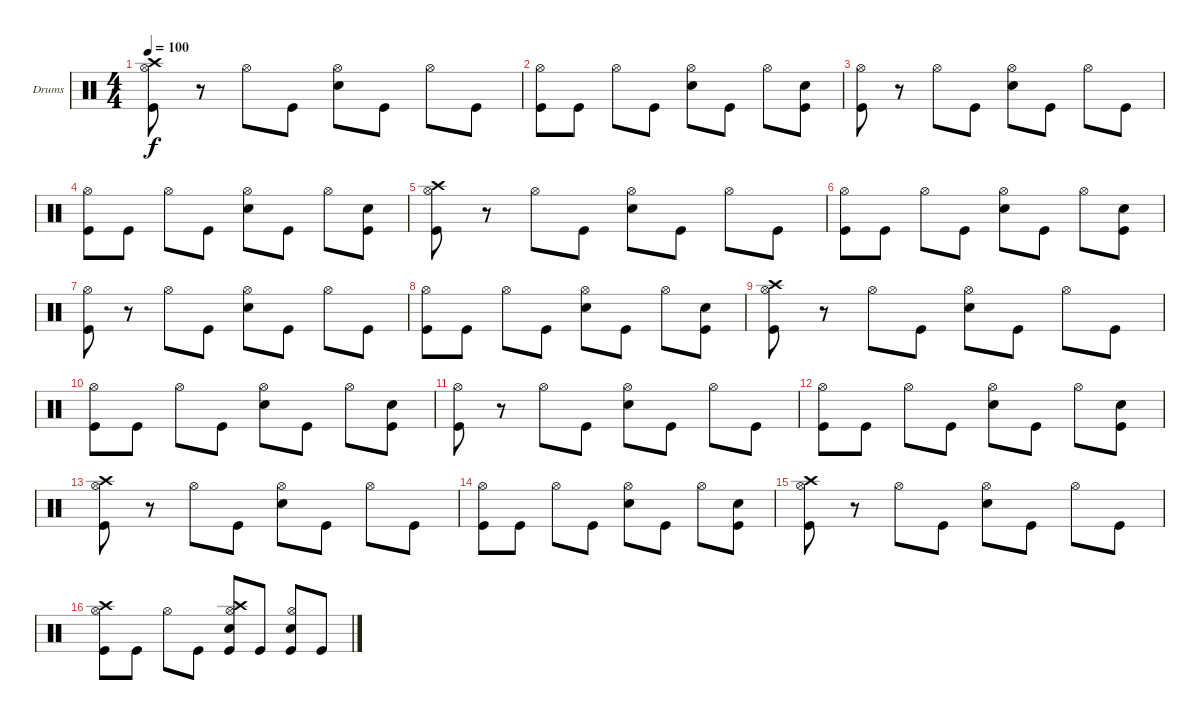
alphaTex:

\bracketExtendMode groupsimilarinstruments
\firstSystemTrackNameOrientation horizontal
\otherSystemsTrackNameOrientation horizontal
\track ("Kaleb - Drums" "Drums") {instrument percussion}
\staff {score}
\articulation defaults
\ts (4 4)
\tempo 100
\clef neutral
\ks c
("Kick (hit)" "Hi-Hat (open)" "Crash high (hit)").8{dy f} r.8 "Hi-Hat (open)".8 "Kick (hit)".8 ("Snare (hit) 2" "Hi-Hat (open)").8 "Kick (hit)".8 "Hi-Hat (open)".8 "Kick (hit)".8 |
("Kick (hit)" "Hi-Hat (open)").8 "Kick (hit)".8 "Hi-Hat (open)".8 "Kick (hit)".8 ("Snare (hit) 2" "Hi-Hat (open)").8 "Kick (hit)".8 "Hi-Hat (open)".8 ("Snare (hit) 2" "Kick (hit)").8 |
("Kick (hit)" "Hi-Hat (open)").8 r.8 "Hi-Hat (open)".8 "Kick (hit)".8 ("Snare (hit) 2" "Hi-Hat (open)").8 "Kick (hit)".8 "Hi-Hat (open)".8 "Kick (hit)".8 |
("Kick (hit)" "Hi-Hat (open)").8 "Kick (hit)".8 "Hi-Hat (open)".8 "Kick (hit)".8 ("Snare (hit) 2" "Hi-Hat (open)").8 "Kick (hit)".8 "Hi-Hat (open)".8 ("Snare (hit) 2" "Kick (hit)").8 |
("Kick (hit)" "Hi-Hat (open)" "Crash high (hit)").8 r.8 "Hi-Hat (open)".8 "Kick (hit)".8 ("Snare (hit) 2" "Hi-Hat (open)").8 "Kick (hit)".8 "Hi-Hat (open)".8 "Kick (hit)".8 |
("Kick (hit)" "Hi-Hat (open)").8 "Kick (hit)".8 "Hi-Hat (open)".8 "Kick (hit)".8 ("Snare (hit) 2" "Hi-Hat (open)").8 "Kick (hit)".8 "Hi-Hat (open)".8 ("Snare (hit) 2" "Kick (hit)").8 |
("Kick (hit)" "Hi-Hat (open)").8 r.8 "Hi-Hat (open)".8 "Kick (hit)".8 ("Snare (hit) 2" "Hi-Hat (open)").8 "Kick (hit)".8 "Hi-Hat (open)".8 "Kick (hit)".8 |
("Kick (hit)" "Hi-Hat (open)").8 "Kick (hit)".8 "Hi-Hat (open)".8 "Kick (hit)".8 ("Snare (hit) 2" "Hi-Hat (open)").8 "Kick (hit)".8 "Hi-Hat (open)".8 ("Snare (hit) 2" "Kick (hit)").8 |
("Kick (hit)" "Hi-Hat (open)" "Crash high (hit)").8 r.8 "Hi-Hat (open)".8 "Kick (hit)".8 ("Snare (hit) 2" "Hi-Hat (open)").8 "Kick (hit)".8 "Hi-Hat (open)".8 "Kick (hit)".8 |
("Kick (hit)" "Hi-Hat (open)").8 "Kick (hit)".8 "Hi-Hat (open)".8 "Kick (hit)".8 ("Snare (hit) 2" "Hi-Hat (open)").8 "Kick (hit)".8 "Hi-Hat (open)".8 ("Snare (hit) 2" "Kick (hit)").8 |
("Kick (hit)" "Hi-Hat (open)").8 r.8 "Hi-Hat (open)".8 "Kick (hit)".8 ("Snare (hit) 2" "Hi-Hat (open)").8 "Kick (hit)".8 "Hi-Hat (open)".8 "Kick (hit)".8 |
("Kick (hit)" "Hi-Hat (open)").8 "Kick (hit)".8 "Hi-Hat (open)".8 "Kick (hit)".8 ("Snare (hit) 2" "Hi-Hat (open)").8 "Kick (hit)".8 "Hi-Hat (open)".8 ("Snare (hit) 2" "Kick (hit)").8 |
("Kick (hit)" "Hi-Hat (open)" "Crash high (hit)").8 r.8 "Hi-Hat (open)".8 "Kick (hit)".8 ("Snare (hit) 2" "Hi-Hat (open)").8 "Kick (hit)".8 "Hi-Hat (open)".8 "Kick (hit)".8 |
("Kick (hit)" "Hi-Hat (open)").8 "Kick (hit)".8 "Hi-Hat (open)".8 "Kick (hit)".8 ("Snare (hit) 2" "Hi-Hat (open)").8 "Kick (hit)".8 "Hi-Hat (open)".8 ("Snare (hit) 2" "Kick (hit)").8 |
("Kick (hit)" "Hi-Hat (open)" "Crash high (hit)").8 r.8 "Hi-Hat (open)".8 "Kick (hit)".8 ("Snare (hit) 2" "Hi-Hat (open)").8 "Kick (hit)".8 "Hi-Hat (open)".8 "Kick (hit)".8 |
("Kick (hit)" "Hi-Hat (open)" "Crash high (hit)").8 "Kick (hit)".8 "Hi-Hat (open)".8 "Kick (hit)".8 ("Snare (hit) 2" "Hi-Hat (open)" "Crash high (hit)" "Kick (hit)").8 "Kick (hit)".8 ("Hi-Hat (open)" "Kick (hit)" "Snare (hit) 2").8 "Kick (hit)".8
